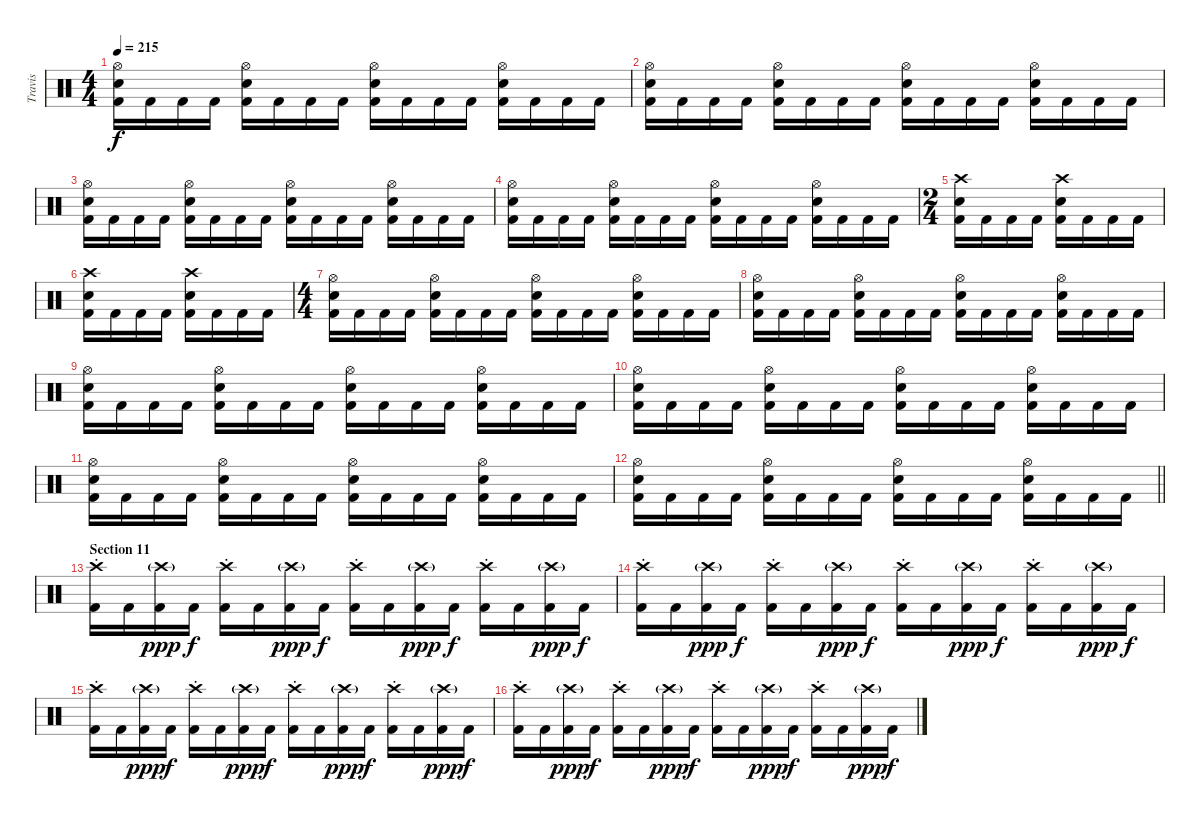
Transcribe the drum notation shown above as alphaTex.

\track ("Travis" "Travis") {instrument percussion}
\staff {score}
\articulation defaults
\ts (4 4)
\tempo 215
\clef neutral
\ks c
("Hi-Hat (open)" "Snare (hit) 2" "Kick (hit) 2").16{dy f} "Kick (hit) 2".16 "Kick (hit) 2".16 "Kick (hit) 2".16 ("Hi-Hat (open)" "Snare (hit) 2" "Kick (hit) 2").16 "Kick (hit) 2".16 "Kick (hit) 2".16 "Kick (hit) 2".16 ("Hi-Hat (open)" "Snare (hit) 2" "Kick (hit) 2").16 "Kick (hit) 2".16 "Kick (hit) 2".16 "Kick (hit) 2".16 ("Hi-Hat (open)" "Snare (hit) 2" "Kick (hit) 2").16 "Kick (hit) 2".16 "Kick (hit) 2".16 "Kick (hit) 2".16 |
("Hi-Hat (open)" "Snare (hit) 2" "Kick (hit) 2").16 "Kick (hit) 2".16 "Kick (hit) 2".16 "Kick (hit) 2".16 ("Hi-Hat (open)" "Snare (hit) 2" "Kick (hit) 2").16 "Kick (hit) 2".16 "Kick (hit) 2".16 "Kick (hit) 2".16 ("Hi-Hat (open)" "Snare (hit) 2" "Kick (hit) 2").16 "Kick (hit) 2".16 "Kick (hit) 2".16 "Kick (hit) 2".16 ("Hi-Hat (open)" "Snare (hit) 2" "Kick (hit) 2").16 "Kick (hit) 2".16 "Kick (hit) 2".16 "Kick (hit) 2".16 |
("Hi-Hat (open)" "Snare (hit) 2" "Kick (hit) 2").16 "Kick (hit) 2".16 "Kick (hit) 2".16 "Kick (hit) 2".16 ("Hi-Hat (open)" "Snare (hit) 2" "Kick (hit) 2").16 "Kick (hit) 2".16 "Kick (hit) 2".16 "Kick (hit) 2".16 ("Hi-Hat (open)" "Snare (hit) 2" "Kick (hit) 2").16 "Kick (hit) 2".16 "Kick (hit) 2".16 "Kick (hit) 2".16 ("Hi-Hat (open)" "Snare (hit) 2" "Kick (hit) 2").16 "Kick (hit) 2".16 "Kick (hit) 2".16 "Kick (hit) 2".16 |
("Hi-Hat (open)" "Snare (hit) 2" "Kick (hit) 2").16 "Kick (hit) 2".16 "Kick (hit) 2".16 "Kick (hit) 2".16 ("Hi-Hat (open)" "Snare (hit) 2" "Kick (hit) 2").16 "Kick (hit) 2".16 "Kick (hit) 2".16 "Kick (hit) 2".16 ("Hi-Hat (open)" "Snare (hit) 2" "Kick (hit) 2").16 "Kick (hit) 2".16 "Kick (hit) 2".16 "Kick (hit) 2".16 ("Hi-Hat (open)" "Snare (hit) 2" "Kick (hit) 2").16 "Kick (hit) 2".16 "Kick (hit) 2".16 "Kick (hit) 2".16 |
\ts (2 4)
("Crash high (hit)" "Snare (hit) 2" "Kick (hit) 2").16 "Kick (hit) 2".16 "Kick (hit) 2".16 "Kick (hit) 2".16 ("Crash high (hit)" "Snare (hit) 2" "Kick (hit) 2").16 "Kick (hit) 2".16 "Kick (hit) 2".16 "Kick (hit) 2".16 |
("Crash high (hit)" "Snare (hit) 2" "Kick (hit) 2").16 "Kick (hit) 2".16 "Kick (hit) 2".16 "Kick (hit) 2".16 ("Crash high (hit)" "Snare (hit) 2" "Kick (hit) 2").16 "Kick (hit) 2".16 "Kick (hit) 2".16 "Kick (hit) 2".16 |
\ts (4 4)
("Hi-Hat (open)" "Snare (hit) 2" "Kick (hit) 2").16 "Kick (hit) 2".16 "Kick (hit) 2".16 "Kick (hit) 2".16 ("Hi-Hat (open)" "Snare (hit) 2" "Kick (hit) 2").16 "Kick (hit) 2".16 "Kick (hit) 2".16 "Kick (hit) 2".16 ("Hi-Hat (open)" "Snare (hit) 2" "Kick (hit) 2").16 "Kick (hit) 2".16 "Kick (hit) 2".16 "Kick (hit) 2".16 ("Hi-Hat (open)" "Snare (hit) 2" "Kick (hit) 2").16 "Kick (hit) 2".16 "Kick (hit) 2".16 "Kick (hit) 2".16 |
("Hi-Hat (open)" "Snare (hit) 2" "Kick (hit) 2").16 "Kick (hit) 2".16 "Kick (hit) 2".16 "Kick (hit) 2".16 ("Hi-Hat (open)" "Snare (hit) 2" "Kick (hit) 2").16 "Kick (hit) 2".16 "Kick (hit) 2".16 "Kick (hit) 2".16 ("Hi-Hat (open)" "Snare (hit) 2" "Kick (hit) 2").16 "Kick (hit) 2".16 "Kick (hit) 2".16 "Kick (hit) 2".16 ("Hi-Hat (open)" "Snare (hit) 2" "Kick (hit) 2").16 "Kick (hit) 2".16 "Kick (hit) 2".16 "Kick (hit) 2".16 |
("Hi-Hat (open)" "Snare (hit) 2" "Kick (hit) 2").16 "Kick (hit) 2".16 "Kick (hit) 2".16 "Kick (hit) 2".16 ("Hi-Hat (open)" "Snare (hit) 2" "Kick (hit) 2").16 "Kick (hit) 2".16 "Kick (hit) 2".16 "Kick (hit) 2".16 ("Hi-Hat (open)" "Snare (hit) 2" "Kick (hit) 2").16 "Kick (hit) 2".16 "Kick (hit) 2".16 "Kick (hit) 2".16 ("Hi-Hat (open)" "Snare (hit) 2" "Kick (hit) 2").16 "Kick (hit) 2".16 "Kick (hit) 2".16 "Kick (hit) 2".16 |
("Hi-Hat (open)" "Snare (hit) 2" "Kick (hit) 2").16 "Kick (hit) 2".16 "Kick (hit) 2".16 "Kick (hit) 2".16 ("Hi-Hat (open)" "Snare (hit) 2" "Kick (hit) 2").16 "Kick (hit) 2".16 "Kick (hit) 2".16 "Kick (hit) 2".16 ("Hi-Hat (open)" "Snare (hit) 2" "Kick (hit) 2").16 "Kick (hit) 2".16 "Kick (hit) 2".16 "Kick (hit) 2".16 ("Hi-Hat (open)" "Snare (hit) 2" "Kick (hit) 2").16 "Kick (hit) 2".16 "Kick (hit) 2".16 "Kick (hit) 2".16 |
("Hi-Hat (open)" "Snare (hit) 2" "Kick (hit) 2").16 "Kick (hit) 2".16 "Kick (hit) 2".16 "Kick (hit) 2".16 ("Hi-Hat (open)" "Snare (hit) 2" "Kick (hit) 2").16 "Kick (hit) 2".16 "Kick (hit) 2".16 "Kick (hit) 2".16 ("Hi-Hat (open)" "Snare (hit) 2" "Kick (hit) 2").16 "Kick (hit) 2".16 "Kick (hit) 2".16 "Kick (hit) 2".16 ("Hi-Hat (open)" "Snare (hit) 2" "Kick (hit) 2").16 "Kick (hit) 2".16 "Kick (hit) 2".16 "Kick (hit) 2".16 |
\barLineRight lightlight
("Hi-Hat (open)" "Snare (hit) 2" "Kick (hit) 2").16 "Kick (hit) 2".16 "Kick (hit) 2".16 "Kick (hit) 2".16 ("Hi-Hat (open)" "Snare (hit) 2" "Kick (hit) 2").16 "Kick (hit) 2".16 "Kick (hit) 2".16 "Kick (hit) 2".16 ("Hi-Hat (open)" "Snare (hit) 2" "Kick (hit) 2").16 "Kick (hit) 2".16 "Kick (hit) 2".16 "Kick (hit) 2".16 ("Hi-Hat (open)" "Snare (hit) 2" "Kick (hit) 2").16 "Kick (hit) 2".16 "Kick (hit) 2".16 "Kick (hit) 2".16 |
\section ("" "Section 11")
("Crash high (hit)"{st} "Kick (hit) 2").16 "Kick (hit) 2".16 ("Crash high (hit)"{g} "Kick (hit) 2").16{dy ppp} "Kick (hit) 2".16{dy f} ("Crash high (hit)"{st} "Kick (hit) 2").16 "Kick (hit) 2".16 ("Crash high (hit)"{g} "Kick (hit) 2").16{dy ppp} "Kick (hit) 2".16{dy f} ("Crash high (hit)"{st} "Kick (hit) 2").16 "Kick (hit) 2".16 ("Crash high (hit)"{g} "Kick (hit) 2").16{dy ppp} "Kick (hit) 2".16{dy f} ("Crash high (hit)"{st} "Kick (hit) 2").16 "Kick (hit) 2".16 ("Crash high (hit)"{g} "Kick (hit) 2").16{dy ppp} "Kick (hit) 2".16{dy f} |
("Crash high (hit)"{st} "Kick (hit) 2").16 "Kick (hit) 2".16 ("Crash high (hit)"{g} "Kick (hit) 2").16{dy ppp} "Kick (hit) 2".16{dy f} ("Crash high (hit)"{st} "Kick (hit) 2").16 "Kick (hit) 2".16 ("Crash high (hit)"{g} "Kick (hit) 2").16{dy ppp} "Kick (hit) 2".16{dy f} ("Crash high (hit)"{st} "Kick (hit) 2").16 "Kick (hit) 2".16 ("Crash high (hit)"{g} "Kick (hit) 2").16{dy ppp} "Kick (hit) 2".16{dy f} ("Crash high (hit)"{st} "Kick (hit) 2").16 "Kick (hit) 2".16 ("Crash high (hit)"{g} "Kick (hit) 2").16{dy ppp} "Kick (hit) 2".16{dy f} |
("Crash high (hit)"{st} "Kick (hit) 2").16 "Kick (hit) 2".16 ("Crash high (hit)"{g} "Kick (hit) 2").16{dy ppp} "Kick (hit) 2".16{dy f} ("Crash high (hit)"{st} "Kick (hit) 2").16 "Kick (hit) 2".16 ("Crash high (hit)"{g} "Kick (hit) 2").16{dy ppp} "Kick (hit) 2".16{dy f} ("Crash high (hit)"{st} "Kick (hit) 2").16 "Kick (hit) 2".16 ("Crash high (hit)"{g} "Kick (hit) 2").16{dy ppp} "Kick (hit) 2".16{dy f} ("Crash high (hit)"{st} "Kick (hit) 2").16 "Kick (hit) 2".16 ("Crash high (hit)"{g} "Kick (hit) 2").16{dy ppp} "Kick (hit) 2".16{dy f} |
("Crash high (hit)"{st} "Kick (hit) 2").16 "Kick (hit) 2".16 ("Crash high (hit)"{g} "Kick (hit) 2").16{dy ppp} "Kick (hit) 2".16{dy f} ("Crash high (hit)"{st} "Kick (hit) 2").16 "Kick (hit) 2".16 ("Crash high (hit)"{g} "Kick (hit) 2").16{dy ppp} "Kick (hit) 2".16{dy f} ("Crash high (hit)"{st} "Kick (hit) 2").16 "Kick (hit) 2".16 ("Crash high (hit)"{g} "Kick (hit) 2").16{dy ppp} "Kick (hit) 2".16{dy f} ("Crash high (hit)"{st} "Kick (hit) 2").16 "Kick (hit) 2".16 ("Crash high (hit)"{g} "Kick (hit) 2").16{dy ppp} "Kick (hit) 2".16{dy f}
